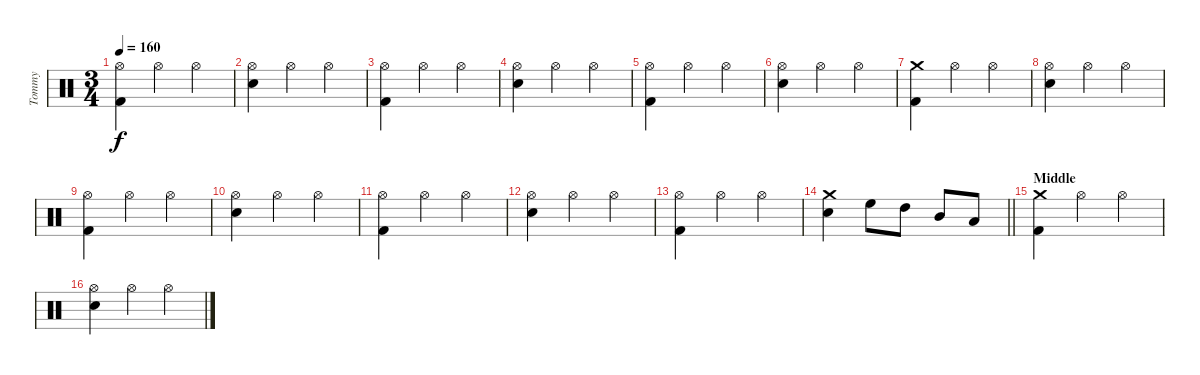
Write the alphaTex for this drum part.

\track ("Tommy" "Tommy") {instrument percussion}
\staff {score}
\articulation defaults
\ts (3 4)
\tempo 160
\clef neutral
\ks c
("Hi-Hat (open)" "Kick (hit) 2").4{dy f} "Hi-Hat (open)".4 "Hi-Hat (open)".4 |
("Hi-Hat (open)" "Electric Snare (hit)").4 "Hi-Hat (open)".4 "Hi-Hat (open)".4 |
("Hi-Hat (open)" "Kick (hit) 2").4 "Hi-Hat (open)".4 "Hi-Hat (open)".4 |
("Hi-Hat (open)" "Electric Snare (hit)").4 "Hi-Hat (open)".4 "Hi-Hat (open)".4 |
("Hi-Hat (open)" "Kick (hit) 2").4 "Hi-Hat (open)".4 "Hi-Hat (open)".4 |
("Hi-Hat (open)" "Electric Snare (hit)").4 "Hi-Hat (open)".4 "Hi-Hat (open)".4 |
("Crash medium (hit)" "Kick (hit) 2").4 "Hi-Hat (open)".4 "Hi-Hat (open)".4 |
("Hi-Hat (open)" "Electric Snare (hit)").4 "Hi-Hat (open)".4 "Hi-Hat (open)".4 |
("Hi-Hat (open)" "Kick (hit) 2").4 "Hi-Hat (open)".4 "Hi-Hat (open)".4 |
("Hi-Hat (open)" "Electric Snare (hit)").4 "Hi-Hat (open)".4 "Hi-Hat (open)".4 |
("Hi-Hat (open)" "Kick (hit) 2").4 "Hi-Hat (open)".4 "Hi-Hat (open)".4 |
("Hi-Hat (open)" "Electric Snare (hit)").4 "Hi-Hat (open)".4 "Hi-Hat (open)".4 |
("Hi-Hat (open)" "Kick (hit) 2").4 "Hi-Hat (open)".4 "Hi-Hat (open)".4 |
\barLineRight lightlight
("Crash medium (hit)" "Electric Snare (hit)").4 "High Floor Tom (hit)".8 "High Tom (hit)".8 "Mid Tom (hit)".8 "Low Tom (hit)".8 |
\section ("" "Middle")
("Crash medium (hit)" "Kick (hit) 2").4 "Hi-Hat (open)".4 "Hi-Hat (open)".4 |
("Hi-Hat (open)" "Electric Snare (hit)").4 "Hi-Hat (open)".4 "Hi-Hat (open)".4
